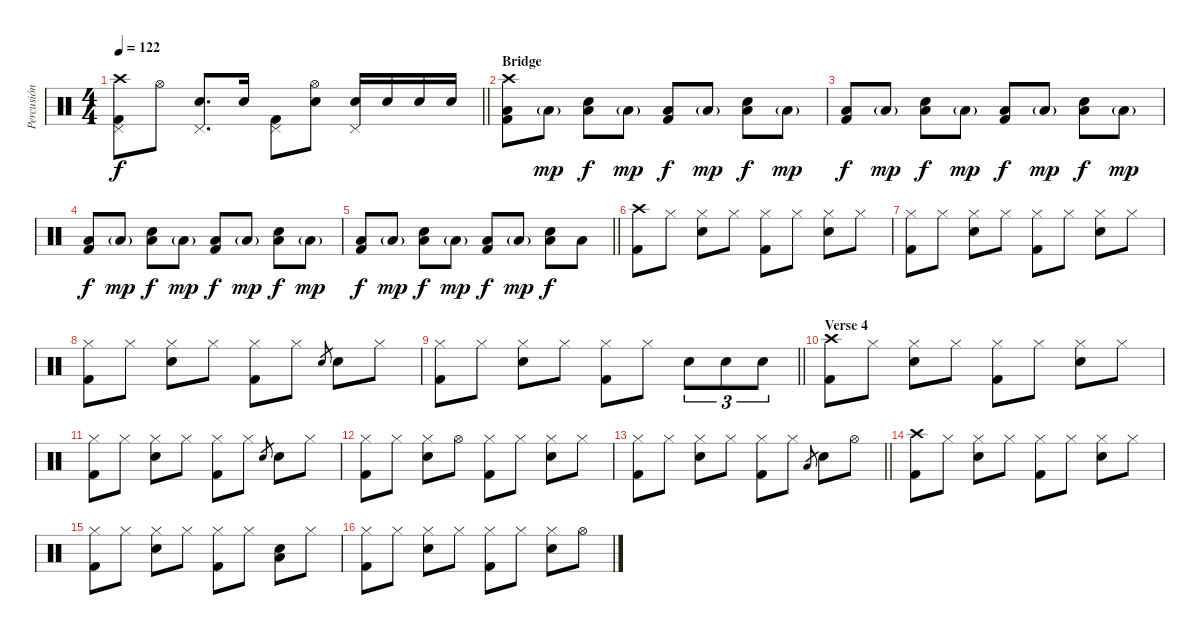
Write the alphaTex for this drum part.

\track ("Percusión" "Percusión") {instrument percussion}
\staff {score}
\articulation defaults
\ts (4 4)
\tempo 122
\clef neutral
\barLineRight lightlight
\ks c
("Crash high (hit)" "Pedal Hi-Hat (hit)" "Kick (hit) 2").8{dy f} "Hi-Hat (open)".8 ("Pedal Hi-Hat (hit)" "Electric Snare (hit)").8{d} "Electric Snare (hit)".16 ("Pedal Hi-Hat (hit)" "Kick (hit) 2").8 ("Hi-Hat (open)" "Electric Snare (hit)").8 ("Pedal Hi-Hat (hit)" "Electric Snare (hit)").16 "Electric Snare (hit)".16 "Electric Snare (hit)".16 "Electric Snare (hit)".16 |
\section ("" "Bridge")
("Crash high (hit)" "Low Floor Tom (hit)" "Kick (hit) 2").8 "Low Floor Tom (hit)"{g}.8{dy mp} ("Electric Snare (hit)" "Low Floor Tom (hit)").8{dy f} "Low Floor Tom (hit)"{g}.8{dy mp} ("Low Floor Tom (hit)" "Kick (hit) 2").8{dy f} "Low Floor Tom (hit)"{g}.8{dy mp} ("Electric Snare (hit)" "Low Floor Tom (hit)").8{dy f} "Low Floor Tom (hit)"{g}.8{dy mp} |
("Low Floor Tom (hit)" "Kick (hit) 2").8{dy f} "Low Floor Tom (hit)"{g}.8{dy mp} ("Electric Snare (hit)" "Low Floor Tom (hit)").8{dy f} "Low Floor Tom (hit)"{g}.8{dy mp} ("Low Floor Tom (hit)" "Kick (hit) 2").8{dy f} "Low Floor Tom (hit)"{g}.8{dy mp} ("Electric Snare (hit)" "Low Floor Tom (hit)").8{dy f} "Low Floor Tom (hit)"{g}.8{dy mp} |
("Low Floor Tom (hit)" "Kick (hit) 2").8{dy f} "Low Floor Tom (hit)"{g}.8{dy mp} ("Electric Snare (hit)" "Low Floor Tom (hit)").8{dy f} "Low Floor Tom (hit)"{g}.8{dy mp} ("Low Floor Tom (hit)" "Kick (hit) 2").8{dy f} "Low Floor Tom (hit)"{g}.8{dy mp} ("Electric Snare (hit)" "Low Floor Tom (hit)").8{dy f} "Low Floor Tom (hit)"{g}.8{dy mp} |
\barLineRight lightlight
("Low Floor Tom (hit)" "Kick (hit) 2").8{dy f} "Low Floor Tom (hit)"{g}.8{dy mp} ("Electric Snare (hit)" "Low Floor Tom (hit)").8{dy f} "Low Floor Tom (hit)"{g}.8{dy mp} ("Low Floor Tom (hit)" "Kick (hit) 2").8{dy f} "Low Floor Tom (hit)"{g}.8{dy mp} ("Electric Snare (hit)" "Low Floor Tom (hit)").8{dy f} "Low Floor Tom (hit)".8 |
("Crash high (hit)" "Kick (hit) 2").8 "Hi-Hat (closed)".8 ("Hi-Hat (closed)" "Electric Snare (hit)").8 "Hi-Hat (closed)".8 ("Hi-Hat (closed)" "Kick (hit) 2").8 "Hi-Hat (closed)".8 ("Hi-Hat (closed)" "Electric Snare (hit)").8 "Hi-Hat (closed)".8 |
("Hi-Hat (closed)" "Kick (hit) 2").8 "Hi-Hat (closed)".8 ("Hi-Hat (closed)" "Electric Snare (hit)").8 "Hi-Hat (closed)".8 ("Hi-Hat (closed)" "Kick (hit) 2").8 "Hi-Hat (closed)".8 ("Hi-Hat (closed)" "Electric Snare (hit)").8 "Hi-Hat (closed)".8 |
("Hi-Hat (closed)" "Kick (hit) 2").8 "Hi-Hat (closed)".8 ("Hi-Hat (closed)" "Electric Snare (hit)").8 "Hi-Hat (closed)".8 ("Hi-Hat (closed)" "Kick (hit) 2").8 "Hi-Hat (closed)".8 "Electric Snare (hit)".8{gr} "Electric Snare (hit)".8 "Hi-Hat (closed)".8 |
\barLineRight lightlight
("Hi-Hat (closed)" "Kick (hit) 2").8 "Hi-Hat (closed)".8 ("Hi-Hat (closed)" "Electric Snare (hit)").8 "Hi-Hat (closed)".8 ("Hi-Hat (closed)" "Kick (hit) 2").8 "Hi-Hat (closed)".8 "Electric Snare (hit)".8{tu (3 2)} "Electric Snare (hit)".8{tu (3 2)} "Electric Snare (hit)".8{tu (3 2)} |
\section ("" "Verse 4")
("Crash high (hit)" "Kick (hit) 2").8 "Hi-Hat (closed)".8 ("Hi-Hat (closed)" "Electric Snare (hit)").8 "Hi-Hat (closed)".8 ("Hi-Hat (closed)" "Kick (hit) 2").8 "Hi-Hat (closed)".8 ("Hi-Hat (closed)" "Electric Snare (hit)").8 "Hi-Hat (closed)".8 |
("Hi-Hat (closed)" "Kick (hit) 2").8 "Hi-Hat (closed)".8 ("Hi-Hat (closed)" "Electric Snare (hit)").8 "Hi-Hat (closed)".8 ("Hi-Hat (closed)" "Kick (hit) 2").8 "Hi-Hat (closed)".8 "Electric Snare (hit)".8{gr} "Electric Snare (hit)".8 "Hi-Hat (closed)".8 |
("Hi-Hat (closed)" "Kick (hit) 2").8 "Hi-Hat (closed)".8 ("Hi-Hat (closed)" "Electric Snare (hit)").8 "Hi-Hat (open)".8 ("Hi-Hat (closed)" "Kick (hit) 2").8 "Hi-Hat (closed)".8 ("Hi-Hat (closed)" "Electric Snare (hit)").8 "Hi-Hat (closed)".8 |
\barLineRight lightlight
("Hi-Hat (closed)" "Kick (hit) 2").8 "Hi-Hat (closed)".8 ("Hi-Hat (closed)" "Electric Snare (hit)").8 "Hi-Hat (closed)".8 ("Hi-Hat (closed)" "Kick (hit) 2").8 "Hi-Hat (closed)".8 "Low Floor Tom (hit)".8{gr} "Electric Snare (hit)".8 "Hi-Hat (open)".8 |
("Crash high (hit)" "Kick (hit) 2").8 "Hi-Hat (closed)".8 ("Hi-Hat (closed)" "Electric Snare (hit)").8 "Hi-Hat (closed)".8 ("Hi-Hat (closed)" "Kick (hit) 2").8 "Hi-Hat (closed)".8 ("Hi-Hat (closed)" "Electric Snare (hit)").8 "Hi-Hat (closed)".8 |
("Hi-Hat (closed)" "Kick (hit) 2").8 "Hi-Hat (closed)".8 ("Hi-Hat (closed)" "Electric Snare (hit)").8 "Hi-Hat (closed)".8 ("Hi-Hat (closed)" "Kick (hit) 2").8 "Hi-Hat (closed)".8 ("Low Floor Tom (hit)" "Electric Snare (hit)").8 "Hi-Hat (closed)".8 |
("Hi-Hat (closed)" "Kick (hit) 2").8 "Hi-Hat (closed)".8 ("Hi-Hat (closed)" "Electric Snare (hit)").8 "Hi-Hat (closed)".8 ("Hi-Hat (closed)" "Kick (hit) 2").8 "Hi-Hat (closed)".8 ("Hi-Hat (closed)" "Electric Snare (hit)").8 "Hi-Hat (open)".8
